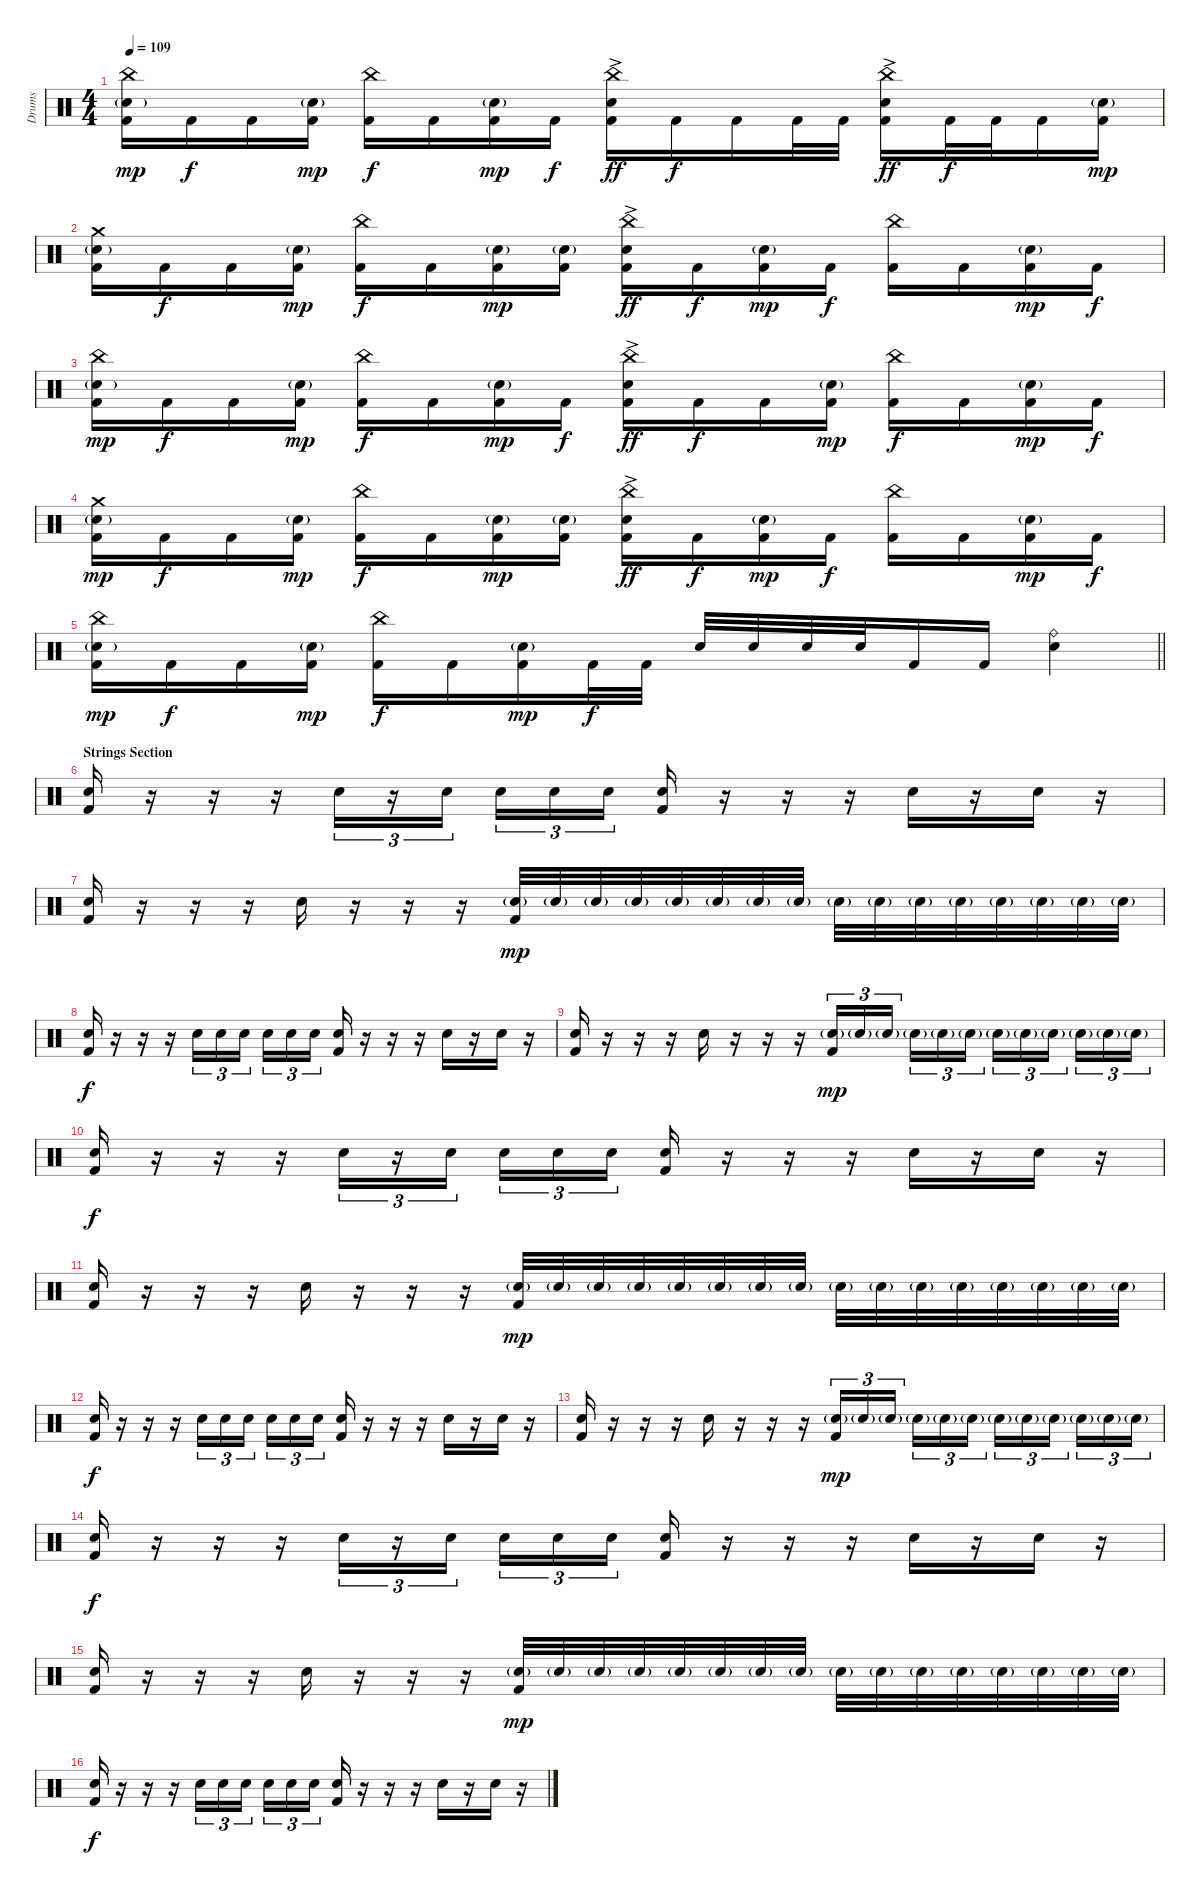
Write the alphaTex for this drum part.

\track ("Drums" "Drums") {instrument percussion}
\staff {score}
\articulation defaults
\ts (4 4)
\tempo 109
\clef neutral
\ks c
("China (hit)" "Snare (hit) 2"{g} "Kick (hit) 2").16{dy mp} "Kick (hit) 2".16{dy f} "Kick (hit) 2".16 ("Snare (hit) 2"{g} "Kick (hit) 2").16{dy mp} ("China (hit)" "Kick (hit) 2").16{dy f} "Kick (hit) 2".16 ("Snare (hit) 2"{g} "Kick (hit) 2").16{dy mp} "Kick (hit) 2".16{dy f} ("China (hit)" "Snare (hit) 2"{ac} "Kick (hit) 2").16{dy ff} "Kick (hit) 2".16{dy f} "Kick (hit) 2".16 "Kick (hit) 2".32 "Kick (hit) 2".32 ("China (hit)" "Snare (hit) 2"{ac} "Kick (hit) 2").16{dy ff} "Kick (hit) 2".32{dy f} "Kick (hit) 2".32 "Kick (hit) 2".16 ("Snare (hit) 2"{g} "Kick (hit) 2").16{dy mp} |
("Crash medium (hit)" "Snare (hit) 2"{g} "Kick (hit) 2").16 "Kick (hit) 2".16{dy f} "Kick (hit) 2".16 ("Snare (hit) 2"{g} "Kick (hit) 2").16{dy mp} ("China (hit)" "Kick (hit) 2").16{dy f} "Kick (hit) 2".16 ("Snare (hit) 2"{g} "Kick (hit) 2").16{dy mp} ("Snare (hit) 2"{g} "Kick (hit) 2").16 ("China (hit)" "Snare (hit) 2"{ac} "Kick (hit) 2").16{dy ff} "Kick (hit) 2".16{dy f} ("Snare (hit) 2"{g} "Kick (hit) 2").16{dy mp} "Kick (hit) 2".16{dy f} ("China (hit)" "Kick (hit) 2").16 "Kick (hit) 2".16 ("Snare (hit) 2"{g} "Kick (hit) 2").16{dy mp} "Kick (hit) 2".16{dy f} |
("China (hit)" "Snare (hit) 2"{g} "Kick (hit) 2").16{dy mp} "Kick (hit) 2".16{dy f} "Kick (hit) 2".16 ("Snare (hit) 2"{g} "Kick (hit) 2").16{dy mp} ("China (hit)" "Kick (hit) 2").16{dy f} "Kick (hit) 2".16 ("Snare (hit) 2"{g} "Kick (hit) 2").16{dy mp} "Kick (hit) 2".16{dy f} ("China (hit)" "Snare (hit) 2"{ac} "Kick (hit) 2").16{dy ff} "Kick (hit) 2".16{dy f} "Kick (hit) 2".16 ("Snare (hit) 2"{g} "Kick (hit) 2").16{dy mp} ("China (hit)" "Kick (hit) 2").16{dy f} "Kick (hit) 2".16 ("Snare (hit) 2"{g} "Kick (hit) 2").16{dy mp} "Kick (hit) 2".16{dy f} |
("Crash medium (hit)" "Snare (hit) 2"{g} "Kick (hit) 2").16{dy mp} "Kick (hit) 2".16{dy f} "Kick (hit) 2".16 ("Snare (hit) 2"{g} "Kick (hit) 2").16{dy mp} ("China (hit)" "Kick (hit) 2").16{dy f} "Kick (hit) 2".16 ("Snare (hit) 2"{g} "Kick (hit) 2").16{dy mp} ("Snare (hit) 2"{g} "Kick (hit) 2").16 ("China (hit)" "Snare (hit) 2"{ac} "Kick (hit) 2").16{dy ff} "Kick (hit) 2".16{dy f} ("Snare (hit) 2"{g} "Kick (hit) 2").16{dy mp} "Kick (hit) 2".16{dy f} ("China (hit)" "Kick (hit) 2").16 "Kick (hit) 2".16 ("Snare (hit) 2"{g} "Kick (hit) 2").16{dy mp} "Kick (hit) 2".16{dy f} |
\barLineRight lightlight
("China (hit)" "Snare (hit) 2"{g} "Kick (hit) 2").16{dy mp} "Kick (hit) 2".16{dy f} "Kick (hit) 2".16 ("Snare (hit) 2"{g} "Kick (hit) 2").16{dy mp} ("China (hit)" "Kick (hit) 2").16{dy f} "Kick (hit) 2".16 ("Snare (hit) 2"{g} "Kick (hit) 2").16{dy mp} "Kick (hit) 2".32{dy f} "Kick (hit) 2".32 "Snare (hit) 2".32 "Snare (hit) 2".32 "Snare (hit) 2".32 "Snare (hit) 2".32 "Kick (hit) 2".16 "Kick (hit) 2".16 ("Ride (bell)" "Snare (hit) 2").4 |
\section ("" "Strings Section")
("Snare (hit) 2" "Kick (hit) 2").16 r.16 r.16 r.16 "Snare (hit) 2".16{tu (3 2)} r.16{tu (3 2)} "Snare (hit) 2".16{tu (3 2) beam splitsecondary} "Snare (hit) 2".16{tu (3 2)} "Snare (hit) 2".16{tu (3 2)} "Snare (hit) 2".16{tu (3 2)} ("Snare (hit) 2" "Kick (hit) 2").16 r.16 r.16 r.16 "Snare (hit) 2".16 r.16 "Snare (hit) 2".16 r.16 |
("Snare (hit) 2" "Kick (hit) 2").16 r.16 r.16 r.16 "Snare (hit) 2".16 r.16 r.16 r.16 ("Snare (hit) 2"{g} "Kick (hit) 2").32{dy mp} "Snare (hit) 2"{g}.32 "Snare (hit) 2"{g}.32 "Snare (hit) 2"{g}.32 "Snare (hit) 2"{g}.32 "Snare (hit) 2"{g}.32 "Snare (hit) 2"{g}.32 "Snare (hit) 2"{g}.32 "Snare (hit) 2"{g}.32 "Snare (hit) 2"{g}.32 "Snare (hit) 2"{g}.32 "Snare (hit) 2"{g}.32 "Snare (hit) 2"{g}.32 "Snare (hit) 2"{g}.32 "Snare (hit) 2"{g}.32 "Snare (hit) 2"{g}.32 |
("Snare (hit) 2" "Kick (hit) 2").16{dy f} r.16 r.16 r.16 "Snare (hit) 2".16{tu (3 2)} "Snare (hit) 2".16{tu (3 2)} "Snare (hit) 2".16{tu (3 2) beam splitsecondary} "Snare (hit) 2".16{tu (3 2)} "Snare (hit) 2".16{tu (3 2)} "Snare (hit) 2".16{tu (3 2)} ("Snare (hit) 2" "Kick (hit) 2").16 r.16 r.16 r.16 "Snare (hit) 2".16 r.16 "Snare (hit) 2".16 r.16 |
("Snare (hit) 2" "Kick (hit) 2").16 r.16 r.16 r.16 "Snare (hit) 2".16 r.16 r.16 r.16 ("Snare (hit) 2"{g} "Kick (hit) 2").16{tu (3 2) dy mp} "Snare (hit) 2"{g}.16{tu (3 2)} "Snare (hit) 2"{g}.16{tu (3 2) beam splitsecondary} "Snare (hit) 2"{g}.16{tu (3 2)} "Snare (hit) 2"{g}.16{tu (3 2)} "Snare (hit) 2"{g}.16{tu (3 2)} "Snare (hit) 2"{g}.16{tu (3 2)} "Snare (hit) 2"{g}.16{tu (3 2)} "Snare (hit) 2"{g}.16{tu (3 2) beam splitsecondary} "Snare (hit) 2"{g}.16{tu (3 2)} "Snare (hit) 2"{g}.16{tu (3 2)} "Snare (hit) 2"{g}.16{tu (3 2)} |
("Snare (hit) 2" "Kick (hit) 2").16{dy f} r.16 r.16 r.16 "Snare (hit) 2".16{tu (3 2)} r.16{tu (3 2)} "Snare (hit) 2".16{tu (3 2) beam splitsecondary} "Snare (hit) 2".16{tu (3 2)} "Snare (hit) 2".16{tu (3 2)} "Snare (hit) 2".16{tu (3 2)} ("Snare (hit) 2" "Kick (hit) 2").16 r.16 r.16 r.16 "Snare (hit) 2".16 r.16 "Snare (hit) 2".16 r.16 |
("Snare (hit) 2" "Kick (hit) 2").16 r.16 r.16 r.16 "Snare (hit) 2".16 r.16 r.16 r.16 ("Snare (hit) 2"{g} "Kick (hit) 2").32{dy mp} "Snare (hit) 2"{g}.32 "Snare (hit) 2"{g}.32 "Snare (hit) 2"{g}.32 "Snare (hit) 2"{g}.32 "Snare (hit) 2"{g}.32 "Snare (hit) 2"{g}.32 "Snare (hit) 2"{g}.32 "Snare (hit) 2"{g}.32 "Snare (hit) 2"{g}.32 "Snare (hit) 2"{g}.32 "Snare (hit) 2"{g}.32 "Snare (hit) 2"{g}.32 "Snare (hit) 2"{g}.32 "Snare (hit) 2"{g}.32 "Snare (hit) 2"{g}.32 |
("Snare (hit) 2" "Kick (hit) 2").16{dy f} r.16 r.16 r.16 "Snare (hit) 2".16{tu (3 2)} "Snare (hit) 2".16{tu (3 2)} "Snare (hit) 2".16{tu (3 2) beam splitsecondary} "Snare (hit) 2".16{tu (3 2)} "Snare (hit) 2".16{tu (3 2)} "Snare (hit) 2".16{tu (3 2)} ("Snare (hit) 2" "Kick (hit) 2").16 r.16 r.16 r.16 "Snare (hit) 2".16 r.16 "Snare (hit) 2".16 r.16 |
("Snare (hit) 2" "Kick (hit) 2").16 r.16 r.16 r.16 "Snare (hit) 2".16 r.16 r.16 r.16 ("Snare (hit) 2"{g} "Kick (hit) 2").16{tu (3 2) dy mp} "Snare (hit) 2"{g}.16{tu (3 2)} "Snare (hit) 2"{g}.16{tu (3 2) beam splitsecondary} "Snare (hit) 2"{g}.16{tu (3 2)} "Snare (hit) 2"{g}.16{tu (3 2)} "Snare (hit) 2"{g}.16{tu (3 2)} "Snare (hit) 2"{g}.16{tu (3 2)} "Snare (hit) 2"{g}.16{tu (3 2)} "Snare (hit) 2"{g}.16{tu (3 2) beam splitsecondary} "Snare (hit) 2"{g}.16{tu (3 2)} "Snare (hit) 2"{g}.16{tu (3 2)} "Snare (hit) 2"{g}.16{tu (3 2)} |
("Snare (hit) 2" "Kick (hit) 2").16{dy f} r.16 r.16 r.16 "Snare (hit) 2".16{tu (3 2)} r.16{tu (3 2)} "Snare (hit) 2".16{tu (3 2) beam splitsecondary} "Snare (hit) 2".16{tu (3 2)} "Snare (hit) 2".16{tu (3 2)} "Snare (hit) 2".16{tu (3 2)} ("Snare (hit) 2" "Kick (hit) 2").16 r.16 r.16 r.16 "Snare (hit) 2".16 r.16 "Snare (hit) 2".16 r.16 |
("Snare (hit) 2" "Kick (hit) 2").16 r.16 r.16 r.16 "Snare (hit) 2".16 r.16 r.16 r.16 ("Snare (hit) 2"{g} "Kick (hit) 2").32{dy mp} "Snare (hit) 2"{g}.32 "Snare (hit) 2"{g}.32 "Snare (hit) 2"{g}.32 "Snare (hit) 2"{g}.32 "Snare (hit) 2"{g}.32 "Snare (hit) 2"{g}.32 "Snare (hit) 2"{g}.32 "Snare (hit) 2"{g}.32 "Snare (hit) 2"{g}.32 "Snare (hit) 2"{g}.32 "Snare (hit) 2"{g}.32 "Snare (hit) 2"{g}.32 "Snare (hit) 2"{g}.32 "Snare (hit) 2"{g}.32 "Snare (hit) 2"{g}.32 |
("Snare (hit) 2" "Kick (hit) 2").16{dy f} r.16 r.16 r.16 "Snare (hit) 2".16{tu (3 2)} "Snare (hit) 2".16{tu (3 2)} "Snare (hit) 2".16{tu (3 2) beam splitsecondary} "Snare (hit) 2".16{tu (3 2)} "Snare (hit) 2".16{tu (3 2)} "Snare (hit) 2".16{tu (3 2)} ("Snare (hit) 2" "Kick (hit) 2").16 r.16 r.16 r.16 "Snare (hit) 2".16 r.16 "Snare (hit) 2".16 r.16
